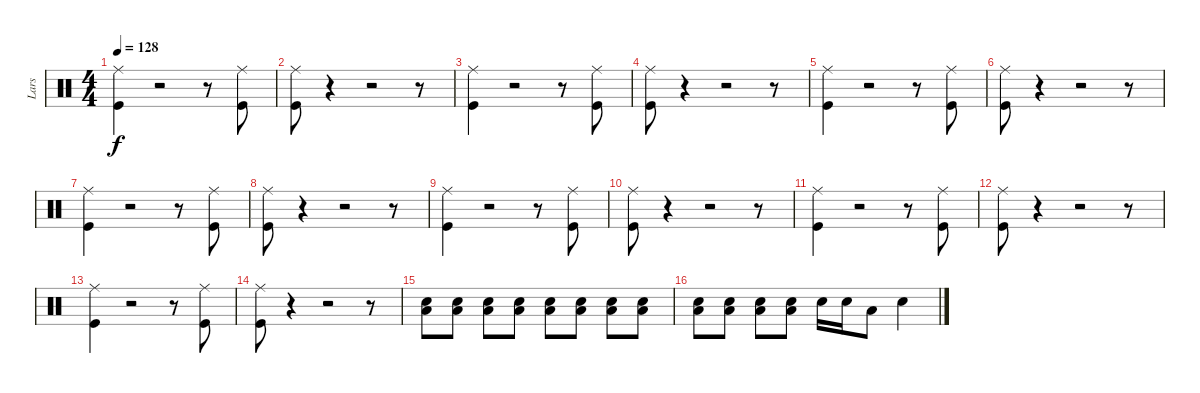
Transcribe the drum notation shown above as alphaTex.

\track ("Lars" "Lars") {instrument percussion}
\staff {score}
\articulation defaults
\ts (4 4)
\tempo 128
\clef neutral
\ks c
("Kick (hit)" "Ride (middle)").4{dy f} r.2 r.8 ("Kick (hit)" "Ride (middle)").8 |
("Kick (hit)" "Ride (middle)").8 r.4 r.2 r.8 |
("Kick (hit)" "Ride (middle)").4 r.2 r.8 ("Kick (hit)" "Ride (middle)").8 |
("Kick (hit)" "Ride (middle)").8 r.4 r.2 r.8 |
("Kick (hit)" "Ride (middle)").4 r.2 r.8 ("Kick (hit)" "Ride (middle)").8 |
("Kick (hit)" "Ride (middle)").8 r.4 r.2 r.8 |
("Kick (hit)" "Ride (middle)").4 r.2 r.8 ("Kick (hit)" "Ride (middle)").8 |
("Kick (hit)" "Ride (middle)").8 r.4 r.2 r.8 |
("Kick (hit)" "Ride (middle)").4 r.2 r.8 ("Kick (hit)" "Ride (middle)").8 |
("Kick (hit)" "Ride (middle)").8 r.4 r.2 r.8 |
("Kick (hit)" "Ride (middle)").4 r.2 r.8 ("Kick (hit)" "Ride (middle)").8 |
("Kick (hit)" "Ride (middle)").8 r.4 r.2 r.8 |
("Kick (hit)" "Ride (middle)").4 r.2 r.8 ("Kick (hit)" "Ride (middle)").8 |
("Kick (hit)" "Ride (middle)").8 r.4 r.2 r.8 |
("Electric Snare (hit)" "Low Floor Tom (hit)").8 ("Electric Snare (hit)" "Low Floor Tom (hit)").8 ("Electric Snare (hit)" "Low Floor Tom (hit)").8 ("Electric Snare (hit)" "Low Floor Tom (hit)").8 ("Electric Snare (hit)" "Low Floor Tom (hit)").8 ("Electric Snare (hit)" "Low Floor Tom (hit)").8 ("Electric Snare (hit)" "Low Floor Tom (hit)").8 ("Electric Snare (hit)" "Low Floor Tom (hit)").8 |
("Electric Snare (hit)" "Low Floor Tom (hit)").8 ("Electric Snare (hit)" "Low Floor Tom (hit)").8 ("Electric Snare (hit)" "Low Floor Tom (hit)").8 ("Electric Snare (hit)" "Low Floor Tom (hit)").8 "Electric Snare (hit)".16 "Electric Snare (hit)".16 "Low Floor Tom (hit)".8 "Electric Snare (hit)".4
